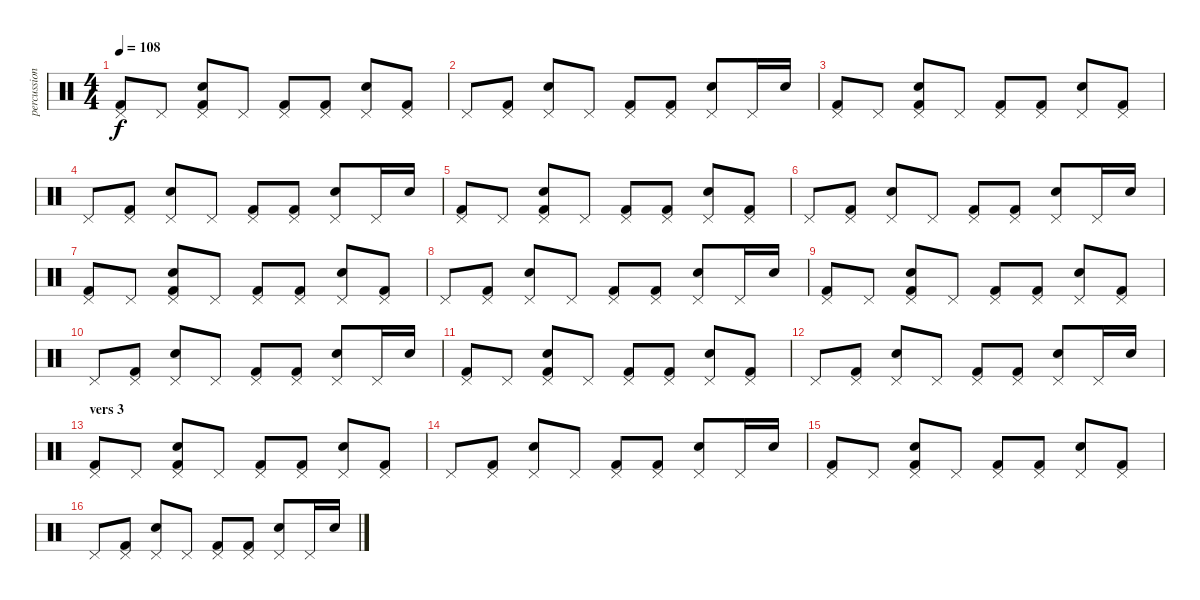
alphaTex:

\track ("percussion" "percussion") {instrument percussion}
\staff {score}
\articulation defaults
\ts (4 4)
\tempo 108
\clef neutral
\ks c
("Pedal Hi-Hat (hit)" "Kick (hit) 2").8{dy f} "Pedal Hi-Hat (hit)".8 ("Pedal Hi-Hat (hit)" "Kick (hit) 2" "Snare (hit) 2").8 "Pedal Hi-Hat (hit)".8 ("Pedal Hi-Hat (hit)" "Kick (hit) 2").8 ("Pedal Hi-Hat (hit)" "Kick (hit) 2").8 ("Pedal Hi-Hat (hit)" "Snare (hit) 2").8 ("Pedal Hi-Hat (hit)" "Kick (hit) 2").8 |
"Pedal Hi-Hat (hit)".8 ("Pedal Hi-Hat (hit)" "Kick (hit) 2").8 ("Pedal Hi-Hat (hit)" "Snare (hit) 2").8 "Pedal Hi-Hat (hit)".8 ("Pedal Hi-Hat (hit)" "Kick (hit) 2").8 ("Pedal Hi-Hat (hit)" "Kick (hit) 2").8 ("Pedal Hi-Hat (hit)" "Snare (hit) 2").8 "Pedal Hi-Hat (hit)".16 "Snare (hit) 2".16 |
("Pedal Hi-Hat (hit)" "Kick (hit) 2").8 "Pedal Hi-Hat (hit)".8 ("Pedal Hi-Hat (hit)" "Kick (hit) 2" "Snare (hit) 2").8 "Pedal Hi-Hat (hit)".8 ("Pedal Hi-Hat (hit)" "Kick (hit) 2").8 ("Pedal Hi-Hat (hit)" "Kick (hit) 2").8 ("Pedal Hi-Hat (hit)" "Snare (hit) 2").8 ("Pedal Hi-Hat (hit)" "Kick (hit) 2").8 |
"Pedal Hi-Hat (hit)".8 ("Pedal Hi-Hat (hit)" "Kick (hit) 2").8 ("Pedal Hi-Hat (hit)" "Snare (hit) 2").8 "Pedal Hi-Hat (hit)".8 ("Pedal Hi-Hat (hit)" "Kick (hit) 2").8 ("Pedal Hi-Hat (hit)" "Kick (hit) 2").8 ("Pedal Hi-Hat (hit)" "Snare (hit) 2").8 "Pedal Hi-Hat (hit)".16 "Snare (hit) 2".16 |
("Pedal Hi-Hat (hit)" "Kick (hit) 2").8 "Pedal Hi-Hat (hit)".8 ("Pedal Hi-Hat (hit)" "Kick (hit) 2" "Snare (hit) 2").8 "Pedal Hi-Hat (hit)".8 ("Pedal Hi-Hat (hit)" "Kick (hit) 2").8 ("Pedal Hi-Hat (hit)" "Kick (hit) 2").8 ("Pedal Hi-Hat (hit)" "Snare (hit) 2").8 ("Pedal Hi-Hat (hit)" "Kick (hit) 2").8 |
"Pedal Hi-Hat (hit)".8 ("Pedal Hi-Hat (hit)" "Kick (hit) 2").8 ("Pedal Hi-Hat (hit)" "Snare (hit) 2").8 "Pedal Hi-Hat (hit)".8 ("Pedal Hi-Hat (hit)" "Kick (hit) 2").8 ("Pedal Hi-Hat (hit)" "Kick (hit) 2").8 ("Pedal Hi-Hat (hit)" "Snare (hit) 2").8 "Pedal Hi-Hat (hit)".16 "Snare (hit) 2".16 |
("Pedal Hi-Hat (hit)" "Kick (hit) 2").8 "Pedal Hi-Hat (hit)".8 ("Pedal Hi-Hat (hit)" "Kick (hit) 2" "Snare (hit) 2").8 "Pedal Hi-Hat (hit)".8 ("Pedal Hi-Hat (hit)" "Kick (hit) 2").8 ("Pedal Hi-Hat (hit)" "Kick (hit) 2").8 ("Pedal Hi-Hat (hit)" "Snare (hit) 2").8 ("Pedal Hi-Hat (hit)" "Kick (hit) 2").8 |
"Pedal Hi-Hat (hit)".8 ("Pedal Hi-Hat (hit)" "Kick (hit) 2").8 ("Pedal Hi-Hat (hit)" "Snare (hit) 2").8 "Pedal Hi-Hat (hit)".8 ("Pedal Hi-Hat (hit)" "Kick (hit) 2").8 ("Pedal Hi-Hat (hit)" "Kick (hit) 2").8 ("Pedal Hi-Hat (hit)" "Snare (hit) 2").8 "Pedal Hi-Hat (hit)".16 "Snare (hit) 2".16 |
("Pedal Hi-Hat (hit)" "Kick (hit) 2").8 "Pedal Hi-Hat (hit)".8 ("Pedal Hi-Hat (hit)" "Kick (hit) 2" "Snare (hit) 2").8 "Pedal Hi-Hat (hit)".8 ("Pedal Hi-Hat (hit)" "Kick (hit) 2").8 ("Pedal Hi-Hat (hit)" "Kick (hit) 2").8 ("Pedal Hi-Hat (hit)" "Snare (hit) 2").8 ("Pedal Hi-Hat (hit)" "Kick (hit) 2").8 |
"Pedal Hi-Hat (hit)".8 ("Pedal Hi-Hat (hit)" "Kick (hit) 2").8 ("Pedal Hi-Hat (hit)" "Snare (hit) 2").8 "Pedal Hi-Hat (hit)".8 ("Pedal Hi-Hat (hit)" "Kick (hit) 2").8 ("Pedal Hi-Hat (hit)" "Kick (hit) 2").8 ("Pedal Hi-Hat (hit)" "Snare (hit) 2").8 "Pedal Hi-Hat (hit)".16 "Snare (hit) 2".16 |
("Pedal Hi-Hat (hit)" "Kick (hit) 2").8 "Pedal Hi-Hat (hit)".8 ("Pedal Hi-Hat (hit)" "Kick (hit) 2" "Snare (hit) 2").8 "Pedal Hi-Hat (hit)".8 ("Pedal Hi-Hat (hit)" "Kick (hit) 2").8 ("Pedal Hi-Hat (hit)" "Kick (hit) 2").8 ("Pedal Hi-Hat (hit)" "Snare (hit) 2").8 ("Pedal Hi-Hat (hit)" "Kick (hit) 2").8 |
"Pedal Hi-Hat (hit)".8 ("Pedal Hi-Hat (hit)" "Kick (hit) 2").8 ("Pedal Hi-Hat (hit)" "Snare (hit) 2").8 "Pedal Hi-Hat (hit)".8 ("Pedal Hi-Hat (hit)" "Kick (hit) 2").8 ("Pedal Hi-Hat (hit)" "Kick (hit) 2").8 ("Pedal Hi-Hat (hit)" "Snare (hit) 2").8 "Pedal Hi-Hat (hit)".16 "Snare (hit) 2".16 |
\section ("" "vers 3")
("Pedal Hi-Hat (hit)" "Kick (hit) 2").8 "Pedal Hi-Hat (hit)".8 ("Pedal Hi-Hat (hit)" "Kick (hit) 2" "Snare (hit) 2").8 "Pedal Hi-Hat (hit)".8 ("Pedal Hi-Hat (hit)" "Kick (hit) 2").8 ("Pedal Hi-Hat (hit)" "Kick (hit) 2").8 ("Pedal Hi-Hat (hit)" "Snare (hit) 2").8 ("Pedal Hi-Hat (hit)" "Kick (hit) 2").8 |
"Pedal Hi-Hat (hit)".8 ("Pedal Hi-Hat (hit)" "Kick (hit) 2").8 ("Pedal Hi-Hat (hit)" "Snare (hit) 2").8 "Pedal Hi-Hat (hit)".8 ("Pedal Hi-Hat (hit)" "Kick (hit) 2").8 ("Pedal Hi-Hat (hit)" "Kick (hit) 2").8 ("Pedal Hi-Hat (hit)" "Snare (hit) 2").8 "Pedal Hi-Hat (hit)".16 "Snare (hit) 2".16 |
("Pedal Hi-Hat (hit)" "Kick (hit) 2").8 "Pedal Hi-Hat (hit)".8 ("Pedal Hi-Hat (hit)" "Kick (hit) 2" "Snare (hit) 2").8 "Pedal Hi-Hat (hit)".8 ("Pedal Hi-Hat (hit)" "Kick (hit) 2").8 ("Pedal Hi-Hat (hit)" "Kick (hit) 2").8 ("Pedal Hi-Hat (hit)" "Snare (hit) 2").8 ("Pedal Hi-Hat (hit)" "Kick (hit) 2").8 |
"Pedal Hi-Hat (hit)".8 ("Pedal Hi-Hat (hit)" "Kick (hit) 2").8 ("Pedal Hi-Hat (hit)" "Snare (hit) 2").8 "Pedal Hi-Hat (hit)".8 ("Pedal Hi-Hat (hit)" "Kick (hit) 2").8 ("Pedal Hi-Hat (hit)" "Kick (hit) 2").8 ("Pedal Hi-Hat (hit)" "Snare (hit) 2").8 "Pedal Hi-Hat (hit)".16 "Snare (hit) 2".16
